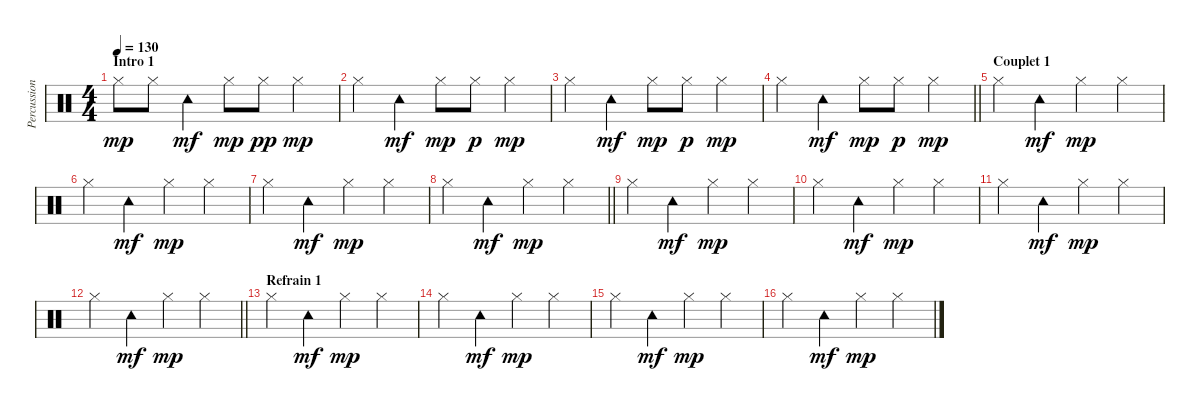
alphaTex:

\track ("Percussions" "Percussion") {instrument percussion}
\staff {score}
\articulation defaults
\ts (4 4)
\section ("" "Intro 1")
\tempo 130
\clef neutral
\ks c "Hi-Hat (closed)".8{dy mp} "Hi-Hat (closed)".8 "Tambourine (hit)".4{dy mf} "Hi-Hat (closed)".8{dy mp} "Hi-Hat (closed)".8{dy pp} "Hi-Hat (closed)".4{dy mp}
|
"Hi-Hat (closed)".4 "Tambourine (hit)".4{dy mf} "Hi-Hat (closed)".8{dy mp} "Hi-Hat (closed)".8{dy p} "Hi-Hat (closed)".4{dy mp} |
"Hi-Hat (closed)".4 "Tambourine (hit)".4{dy mf} "Hi-Hat (closed)".8{dy mp} "Hi-Hat (closed)".8{dy p} "Hi-Hat (closed)".4{dy mp} |
\barLineRight lightlight "Hi-Hat (closed)".4 "Tambourine (hit)".4{dy mf} "Hi-Hat (closed)".8{dy mp} "Hi-Hat (closed)".8{dy p} "Hi-Hat (closed)".4{dy mp}
|
\section ("" "Couplet 1")
"Hi-Hat (closed)".4 "Tambourine (hit)".4{dy mf} "Hi-Hat (closed)".4{dy mp} "Hi-Hat (closed)".4 |
"Hi-Hat (closed)".4 "Tambourine (hit)".4{dy mf} "Hi-Hat (closed)".4{dy mp} "Hi-Hat (closed)".4 |
"Hi-Hat (closed)".4 "Tambourine (hit)".4{dy mf} "Hi-Hat (closed)".4{dy mp} "Hi-Hat (closed)".4 |
\barLineRight lightlight "Hi-Hat (closed)".4 "Tambourine (hit)".4{dy mf} "Hi-Hat (closed)".4{dy mp} "Hi-Hat (closed)".4
|
"Hi-Hat (closed)".4 "Tambourine (hit)".4{dy mf} "Hi-Hat (closed)".4{dy mp} "Hi-Hat (closed)".4 |
"Hi-Hat (closed)".4 "Tambourine (hit)".4{dy mf} "Hi-Hat (closed)".4{dy mp} "Hi-Hat (closed)".4 |
"Hi-Hat (closed)".4 "Tambourine (hit)".4{dy mf} "Hi-Hat (closed)".4{dy mp} "Hi-Hat (closed)".4 |
\barLineRight lightlight "Hi-Hat (closed)".4 "Tambourine (hit)".4{dy mf} "Hi-Hat (closed)".4{dy mp} "Hi-Hat (closed)".4
|
\section ("" "Refrain 1")
"Hi-Hat (closed)".4 "Tambourine (hit)".4{dy mf} "Hi-Hat (closed)".4{dy mp} "Hi-Hat (closed)".4 |
"Hi-Hat (closed)".4 "Tambourine (hit)".4{dy mf} "Hi-Hat (closed)".4{dy mp} "Hi-Hat (closed)".4 |
"Hi-Hat (closed)".4 "Tambourine (hit)".4{dy mf} "Hi-Hat (closed)".4{dy mp} "Hi-Hat (closed)".4 |
"Hi-Hat (closed)".4 "Tambourine (hit)".4{dy mf} "Hi-Hat (closed)".4{dy mp} "Hi-Hat (closed)".4
